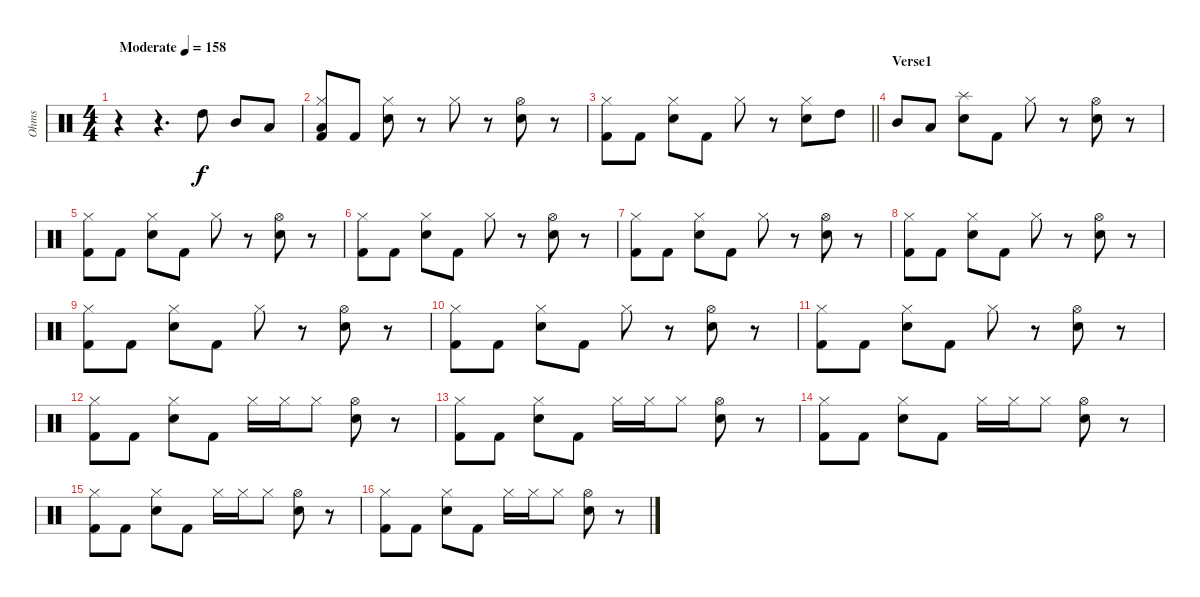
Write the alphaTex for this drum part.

\track ("Ohms" "Ohms") {instrument percussion}
\staff {score}
\articulation defaults
\ts (4 4)
\tempo (158 "Moderate")
\clef neutral
\ks c
r.4{dy f} r.4{d} "High Tom (hit)".8 "Mid Tom (hit)".8 "Low Tom (hit)".8 |
("Hi-Hat (closed)" "Low Tom (hit)" "Kick (hit) 2").8 "Kick (hit) 2".8 ("Hi-Hat (closed)" "Snare (hit) 2").8 r.8 "Hi-Hat (closed)".8 r.8 ("Hi-Hat (open)" "Snare (hit) 2").8 r.8 |
\barLineRight lightlight
("Hi-Hat (closed)" "Kick (hit) 2").8 "Kick (hit) 2".8 ("Hi-Hat (closed)" "Snare (hit) 2").8 "Kick (hit) 2".8 "Hi-Hat (closed)".8 r.8 ("Hi-Hat (closed)" "Snare (hit) 2").8 "High Tom (hit)".8 |
\section ("" "Verse1")
"Mid Tom (hit)".8 "Low Tom (hit)".8 ("Splash (hit)" "Snare (hit) 2").8 "Kick (hit) 2".8 "Hi-Hat (closed)".8 r.8 ("Hi-Hat (open)" "Snare (hit) 2").8 r.8 |
("Hi-Hat (closed)" "Kick (hit) 2").8 "Kick (hit) 2".8 ("Hi-Hat (closed)" "Snare (hit) 2").8 "Kick (hit) 2".8 "Hi-Hat (closed)".8 r.8 ("Hi-Hat (open)" "Snare (hit) 2").8 r.8 |
("Hi-Hat (closed)" "Kick (hit) 2").8 "Kick (hit) 2".8 ("Hi-Hat (closed)" "Snare (hit) 2").8 "Kick (hit) 2".8 "Hi-Hat (closed)".8 r.8 ("Hi-Hat (open)" "Snare (hit) 2").8 r.8 |
("Hi-Hat (closed)" "Kick (hit) 2").8 "Kick (hit) 2".8 ("Hi-Hat (closed)" "Snare (hit) 2").8 "Kick (hit) 2".8 "Hi-Hat (closed)".8 r.8 ("Hi-Hat (open)" "Snare (hit) 2").8 r.8 |
("Hi-Hat (closed)" "Kick (hit) 2").8 "Kick (hit) 2".8 ("Hi-Hat (closed)" "Snare (hit) 2").8 "Kick (hit) 2".8 "Hi-Hat (closed)".8 r.8 ("Hi-Hat (open)" "Snare (hit) 2").8 r.8 |
("Hi-Hat (closed)" "Kick (hit) 2").8 "Kick (hit) 2".8 ("Hi-Hat (closed)" "Snare (hit) 2").8 "Kick (hit) 2".8 "Hi-Hat (closed)".8 r.8 ("Hi-Hat (open)" "Snare (hit) 2").8 r.8 |
("Hi-Hat (closed)" "Kick (hit) 2").8 "Kick (hit) 2".8 ("Hi-Hat (closed)" "Snare (hit) 2").8 "Kick (hit) 2".8 "Hi-Hat (closed)".8 r.8 ("Hi-Hat (open)" "Snare (hit) 2").8 r.8 |
("Hi-Hat (closed)" "Kick (hit) 2").8 "Kick (hit) 2".8 ("Hi-Hat (closed)" "Snare (hit) 2").8 "Kick (hit) 2".8 "Hi-Hat (closed)".8 r.8 ("Hi-Hat (open)" "Snare (hit) 2").8 r.8 |
("Hi-Hat (closed)" "Kick (hit) 2").8 "Kick (hit) 2".8 ("Hi-Hat (closed)" "Snare (hit) 2").8 "Kick (hit) 2".8 "Hi-Hat (closed)".16 "Hi-Hat (closed)".16 "Hi-Hat (closed)".8 ("Hi-Hat (open)" "Snare (hit) 2").8 r.8 |
("Hi-Hat (closed)" "Kick (hit) 2").8 "Kick (hit) 2".8 ("Hi-Hat (closed)" "Snare (hit) 2").8 "Kick (hit) 2".8 "Hi-Hat (closed)".16 "Hi-Hat (closed)".16 "Hi-Hat (closed)".8 ("Hi-Hat (open)" "Snare (hit) 2").8 r.8 |
("Hi-Hat (closed)" "Kick (hit) 2").8 "Kick (hit) 2".8 ("Hi-Hat (closed)" "Snare (hit) 2").8 "Kick (hit) 2".8 "Hi-Hat (closed)".16 "Hi-Hat (closed)".16 "Hi-Hat (closed)".8 ("Hi-Hat (open)" "Snare (hit) 2").8 r.8 |
("Hi-Hat (closed)" "Kick (hit) 2").8 "Kick (hit) 2".8 ("Hi-Hat (closed)" "Snare (hit) 2").8 "Kick (hit) 2".8 "Hi-Hat (closed)".16 "Hi-Hat (closed)".16 "Hi-Hat (closed)".8 ("Hi-Hat (open)" "Snare (hit) 2").8 r.8 |
("Hi-Hat (closed)" "Kick (hit) 2").8 "Kick (hit) 2".8 ("Hi-Hat (closed)" "Snare (hit) 2").8 "Kick (hit) 2".8 "Hi-Hat (closed)".16 "Hi-Hat (closed)".16 "Hi-Hat (closed)".8 ("Hi-Hat (open)" "Snare (hit) 2").8 r.8
